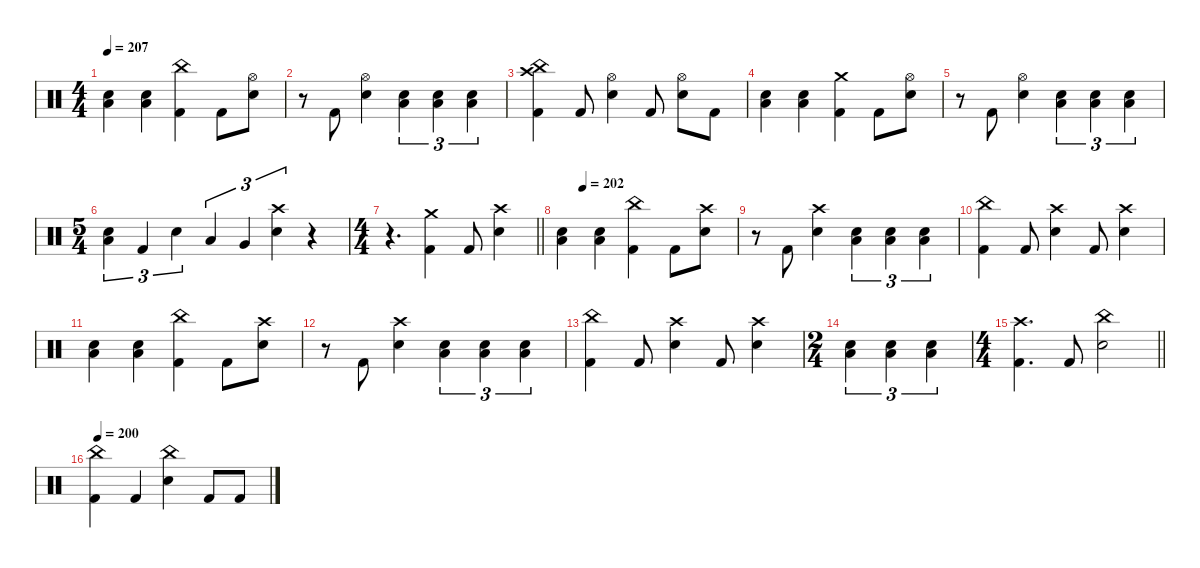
\defaultSystemsLayout 4
\hideDynamics
\bracketExtendMode nobrackets
\singleTrackTrackNamePolicy hidden
\multiTrackTrackNamePolicy hidden
\firstSystemTrackNameMode fullname
\otherSystemsTrackNameOrientation horizontal
\track ("Drums" "drm.") {defaultSystemsLayout 4 instrument percussion}
\staff {score}
\articulation defaults
\ts (4 4)
\tempo 207
\clef neutral
\ks c
("Low Floor Tom (hit)" "Snare (hit) 2").4{dy f beam Down} ("Low Floor Tom (hit)" "Snare (hit) 2").4{beam Down} ("China (hit)" "Kick (hit) 2").4{beam Down} "Kick (hit) 2".8{beam Down} ("Hi-Hat (open)" "Snare (hit) 2").8{beam Down} |
r.8{beam Down} "Kick (hit) 2".8{beam Up} ("Hi-Hat (open)" "Snare (hit) 2").4{beam Down} ("Low Floor Tom (hit)" "Snare (hit) 2").4{tu (3 2) beam Down} ("Low Floor Tom (hit)" "Snare (hit) 2").4{tu (3 2) beam Down} ("Low Floor Tom (hit)" "Snare (hit) 2").4{tu (3 2) beam Down} |
("Crash high (hit)" "China (hit)" "Kick (hit) 2").4{beam Down} "Kick (hit) 2".8{beam Up} ("Hi-Hat (open)" "Snare (hit) 2").4{beam Down} "Kick (hit) 2".8{beam Up} ("Hi-Hat (open)" "Snare (hit) 2").8{dy mp beam Down} "Kick (hit) 2".8{dy f beam Down} |
("Low Floor Tom (hit)" "Snare (hit) 2").4{beam Down} ("Low Floor Tom (hit)" "Snare (hit) 2").4{beam Down} ("Crash medium (hit)" "Kick (hit) 2").4{beam Down} "Kick (hit) 2".8{beam Down} ("Hi-Hat (open)" "Snare (hit) 2").8{beam Down} |
r.8{beam Down} "Kick (hit) 2".8{beam Up} ("Hi-Hat (open)" "Snare (hit) 2").4{beam Down} ("Low Floor Tom (hit)" "Snare (hit) 2").4{tu (3 2) beam Down} ("Low Floor Tom (hit)" "Snare (hit) 2").4{tu (3 2) beam Down} ("Low Floor Tom (hit)" "Snare (hit) 2").4{tu (3 2) beam Down} |
\ts (5 4)
\beaming (8 2 2 2 4)
("Low Floor Tom (hit)" "Snare (hit) 2").4{tu (3 2) beam Down} "Kick (hit) 2".4{tu (3 2) beam Up} "Snare (hit) 2".4{tu (3 2) beam Down} "Low Tom (hit)".4{tu (3 2) beam Up} "Very Low Tom (hit)".4{tu (3 2) beam Up} ("Crash high (hit)" "Snare (hit) 2").4{tu (3 2) beam Down} r.4{beam Down} |
\ts (4 4)
\beaming (8 2 2 2 2)
\barLineRight lightlight
r.4{d beam Down} ("Crash medium (hit)" "Kick (hit) 2").4{beam Down} "Kick (hit) 2".8{beam Up} ("Crash high (hit)" "Snare (hit) 2").4{beam Down} |
\tempo (202 0.125)
("Low Floor Tom (hit)" "Snare (hit) 2").4{beam Down} ("Low Floor Tom (hit)" "Snare (hit) 2").4{beam Down} ("China (hit)" "Kick (hit) 2").4{beam Down} "Kick (hit) 2".8{beam Down} ("Crash high (hit)" "Snare (hit) 2").8{beam Down} |
r.8{beam Down} "Kick (hit) 2".8{beam Up} ("Crash high (hit)" "Snare (hit) 2").4{beam Down} ("Low Floor Tom (hit)" "Snare (hit) 2").4{tu (3 2) beam Down} ("Low Floor Tom (hit)" "Snare (hit) 2").4{tu (3 2) beam Down} ("Low Floor Tom (hit)" "Snare (hit) 2").4{tu (3 2) beam Down} |
("China (hit)" "Kick (hit) 2").4{beam Down} "Kick (hit) 2".8{beam Up} ("Crash high (hit)" "Snare (hit) 2").4{beam Down} "Kick (hit) 2".8{beam Up} ("Crash high (hit)" "Snare (hit) 2").4{beam Down} |
("Low Floor Tom (hit)" "Snare (hit) 2").4{beam Down} ("Low Floor Tom (hit)" "Snare (hit) 2").4{beam Down} ("China (hit)" "Kick (hit) 2").4{beam Down} "Kick (hit) 2".8{beam Down} ("Crash high (hit)" "Snare (hit) 2").8{beam Down} |
r.8{beam Down} "Kick (hit) 2".8{beam Up} ("Crash high (hit)" "Snare (hit) 2").4{beam Down} ("Low Floor Tom (hit)" "Snare (hit) 2").4{tu (3 2) beam Down} ("Low Floor Tom (hit)" "Snare (hit) 2").4{tu (3 2) beam Down} ("Low Floor Tom (hit)" "Snare (hit) 2").4{tu (3 2) beam Down} |
("China (hit)" "Kick (hit) 2").4{beam Down} "Kick (hit) 2".8{beam Up} ("Crash high (hit)" "Snare (hit) 2").4{beam Down} "Kick (hit) 2".8{beam Up} ("Crash high (hit)" "Snare (hit) 2").4{beam Down} |
\ts (2 4)
\beaming (8 2 2)
("Low Floor Tom (hit)" "Snare (hit) 2").4{tu (3 2) beam Down} ("Low Floor Tom (hit)" "Snare (hit) 2").4{tu (3 2) beam Down} ("Low Floor Tom (hit)" "Snare (hit) 2").4{tu (3 2) beam Down} |
\ts (4 4)
\beaming (8 2 2 2 2)
\barLineRight lightlight
("Crash high (hit)" "Kick (hit) 2").4{d beam Down} "Kick (hit) 2".8{beam Up} ("China (hit)" "Snare (hit) 2").2{beam Down} |
\tempo 200
("China (hit)" "Kick (hit) 2").4{beam Down} "Kick (hit) 2".4{beam Up} ("China (hit)" "Snare (hit) 2").4{beam Down} "Kick (hit) 2".8{beam Up} "Kick (hit) 2".8{beam Up}
